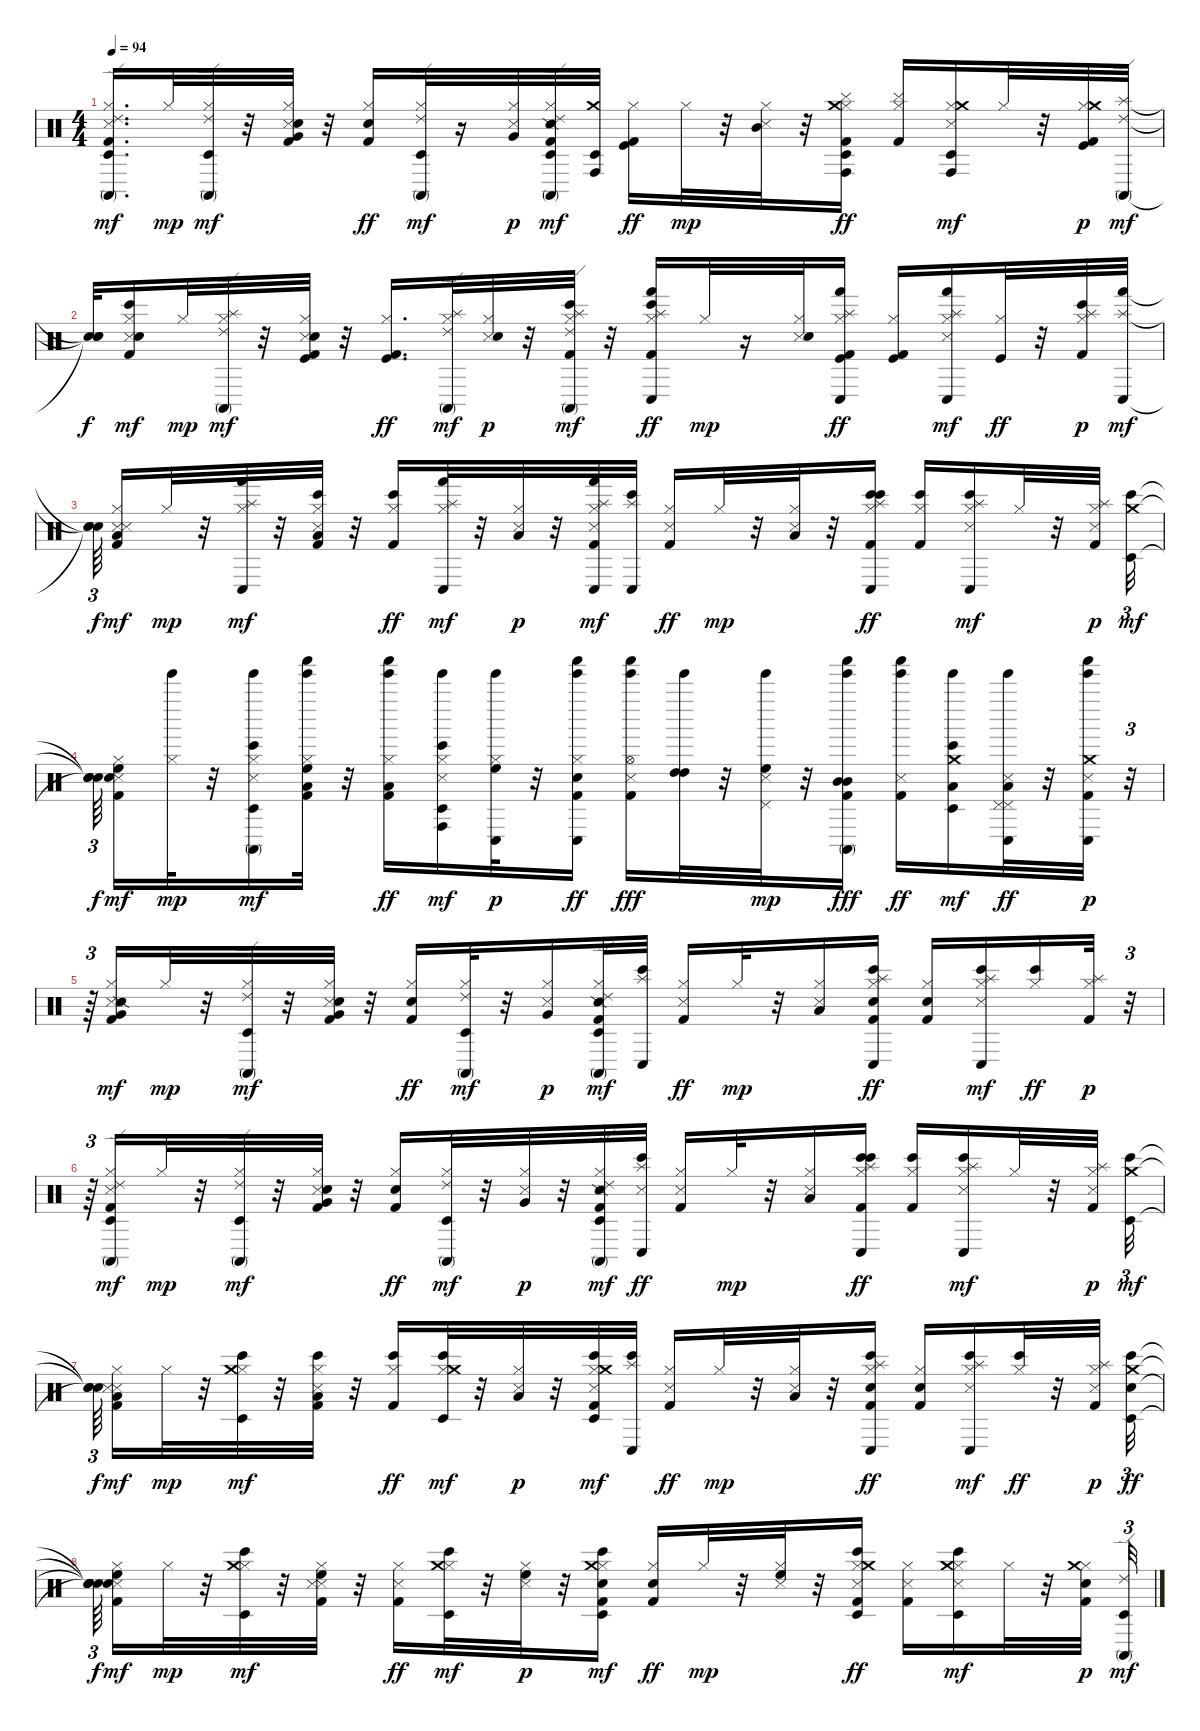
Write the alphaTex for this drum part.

\track "" {instrument percussion}
\staff {score}
\articulation defaults
\ts (4 4)
\tempo 94
\clef neutral
\ks c
("Conga high (mute)" "Timbale low (hit)" "Ride (edge) 2" "Kick (hit) 2" "Snare (side stick) 3" "Hi-Hat (closed)").16{d dy mf volume 6} "Hi-Hat (closed)".32{dy mp} ("Hi-Hat (closed)" "Conga high (mute)" "Timbale low (hit)" "Ride (edge) 2").32{dy mf} r.32 ("Kick (hit) 2" "Snare (side stick) 3" "Hi-Hat (closed)" "Snare (hit) 2" "Very Low Tom (hit)").32 r.32 ("Kick (hit) 2" "Hi-Hat (closed)" "Snare (hit) 2").16{dy ff} ("Hi-Hat (closed)" "Timbale low (hit)" "Conga high (mute)" "Ride (edge) 2").32{dy mf} r.16 ("Snare (side stick) 3" "Hi-Hat (closed)" "Very Low Tom (hit)").32{dy p} ("Kick (hit) 2" "Hi-Hat (closed)" "Snare (side stick) 2" "Conga high (mute)" "Ride (edge) 2" "Timbale low (hit)").32{dy mf} ("Conga high (hit)" "Timbale low (hit)" "Crash medium (hit)").32{volume 6} ("Kick (hit) 2" "Hi-Hat (closed)" "Kick (hit)").16{dy ff} "Hi-Hat (closed)".32{dy mp} r.32 ("Snare (side stick) 3" "Hi-Hat (closed)" "Mid Tom (hit)").32 r.32 ("Kick (hit) 2" "Hi-Hat (closed)" "Cymbal (hit)" "Timbale low (hit)" "Crash medium (hit)" "Conga high (hit)").16{dy ff} ("Kick (hit) 2" "Hi-Hat (closed)" "Cymbal (hit)").16 ("Snare (side stick) 3" "Hi-Hat (closed)" "Conga high (hit)" "Crash medium (hit)" "Timbale low (hit)").16{dy mf} "Hi-Hat (closed)".32 r.32 ("Kick (hit) 2" "Hi-Hat (closed)" "Kick (hit)" "Crash medium (hit)").32{dy p volume 7} ("Ride (edge) 2" "Conga high (mute)" "Splash (hit)").32{dy mf volume 6} |
("Snare (hit)"{t} "Snare (hit)"{t} "Snare (hit)"{t}).32{dy f} ("Kick (hit) 2" "Snare (side stick) 3" "Hi-Hat (closed)" "Bongo High (hit)" "Electric Snare (hit)").16{dy mf} "Hi-Hat (closed)".32{dy mp} ("Hi-Hat (closed)" "Ride (edge) 2" "Conga high (mute)" "Splash (hit)").32{dy mf} r.32 ("Kick (hit) 2" "Snare (side stick) 3" "Hi-Hat (closed)" "Kick (hit)" "Electric Snare (hit)").32 r.32 ("Kick (hit) 2" "Hi-Hat (closed)" "Kick (hit)").16{d dy ff} ("Hi-Hat (closed)" "Conga high (mute)" "Ride (edge) 2" "Splash (hit)").32{dy mf} ("Snare (side stick) 3" "Hi-Hat (closed)" "Electric Snare (hit)").32{dy p} r.32 ("Kick (hit) 2" "Hi-Hat (closed)" "Bongo High (hit)" "Ride (edge) 2" "Splash (hit)" "Conga high (mute)").32{dy mf volume 7} r.32 ("Hand (hit)" "Conga low (hit)" "Splash (hit)" "Kick (hit) 2" "Hi-Hat (closed)" "Bongo High (hit)").16{dy ff volume 6} "Hi-Hat (closed)".32{dy mp} r.16 ("Snare (side stick) 3" "Hi-Hat (closed)" "Electric Snare (hit)").32 ("Kick (hit) 2" "Hi-Hat (closed)" "Kick (hit)" "Conga low (hit)" "Splash (hit)" "Hand (hit)").16{dy ff} ("Kick (hit) 2" "Hi-Hat (closed)" "Kick (hit)").16 ("Snare (side stick) 3" "Hi-Hat (closed)" "Hand (hit)" "Splash (hit)" "Conga low (hit)").16{dy mf} ("Hi-Hat (closed)" "Kick (hit)").32{dy ff} r.32 ("Kick (hit) 2" "Hi-Hat (closed)" "Bongo High (hit)" "Splash (hit)").32{dy p volume 7} ("Hand (hit)" "Conga low (hit)" "Splash (hit)").32{dy mf volume 6} |
("Snare (hit)"{t} "Snare (hit)"{t} "Snare (hit)"{t}).64{tu (3 2) dy f beam splitsecondary} ("Kick (hit) 2" "Snare (side stick) 3" "Hi-Hat (closed)" "Metronome (hit)" "Low Tom (hit)").16{dy mf} "Hi-Hat (closed)".32{dy mp} r.32 ("Hi-Hat (closed)" "Hand (hit)" "Conga low (hit)" "Splash (hit)").32{dy mf} r.32 ("Kick (hit) 2" "Snare (side stick) 3" "Hi-Hat (closed)" "Bongo High (hit)" "Low Tom (hit)").32 r.32 ("Kick (hit) 2" "Hi-Hat (closed)" "Bongo High (hit)").16{dy ff} ("Hi-Hat (closed)" "Conga low (hit)" "Hand (hit)" "Splash (hit)").32{dy mf} r.32 ("Snare (side stick) 3" "Hi-Hat (closed)" "Low Tom (hit)").32{dy p} r.32 ("Kick (hit) 2" "Hi-Hat (closed)" "Metronome (hit)" "Hand (hit)" "Splash (hit)" "Conga low (hit)").32{dy mf volume 7} ("Bongo High (hit)" "Conga low (hit)" "Splash (hit)").32{volume 6} ("Kick (hit) 2" "Hi-Hat (closed)" "Metronome (hit)").16{dy ff} "Hi-Hat (closed)".32{dy mp} r.32 ("Snare (side stick) 3" "Hi-Hat (closed)" "Low Tom (hit)").32 r.32 ("Kick (hit) 2" "Hi-Hat (closed)" "Bongo High (hit)" "Conga low (hit)" "Splash (hit)" "Bongo High (hit)").16{dy ff} ("Kick (hit) 2" "Hi-Hat (closed)" "Bongo High (hit)").16 ("Snare (side stick) 3" "Hi-Hat (closed)" "Bongo High (hit)" "Splash (hit)" "Conga low (hit)").16{dy mf} "Hi-Hat (closed)".32 r.32 ("Kick (hit) 2" "Hi-Hat (closed)" "Metronome (hit)" "Splash (hit)").32{dy p} ("Bongo High (hit)" "Timbale low (hit)" "Crash medium (hit)").32{tu (3 2) dy mf volume 6} |
("Snare (hit)"{t} "Snare (hit)"{t} "Snare (hit)"{t}).64{tu (3 2) dy f beam splitsecondary} ("Kick (hit) 2" "Snare (side stick) 3" "Hi-Hat (closed)" "Snare (hit) 2" "High Floor Tom (hit)").16{dy mf} ("Tinkle Bell (hit)" "Hi-Hat (closed)").32{dy mp} r.32 ("Tinkle Bell (hit)" "Conga high (mute)" "Snare (side stick) 3" "Hi-Hat (closed)" "Bongo High (hit)" "Timbale low (hit)").16{dy mf} ("Kick (hit) 2" "Hi-Hat (closed)" "Tinkle Bell (hit)" "Shaker (hit)" "Low Tom (hit)" "High Floor Tom (hit)").32 r.32 ("Kick (hit) 2" "Hi-Hat (closed)" "Tinkle Bell (hit)" "Shaker (hit)" "Low Tom (hit)").16{dy ff} ("Tinkle Bell (hit)" "Conga high (hit)" "Snare (side stick) 3" "Hi-Hat (closed)" "Timbale low (hit)" "Bongo High (hit)").16{dy mf} ("Tinkle Bell (hit)" "Conga low (hit)" "Hi-Hat (closed)" "High Floor Tom (hit)").32{dy p} r.32 ("Kick (hit) 2" "Conga low (hit)" "Hi-Hat (closed)" "Tinkle Bell (hit)" "Shaker (hit)" "Snare (hit) 2").16{dy ff} ("Kick (hit) 2" "Snare (side stick) 3" "Tinkle Bell (hit)" "Shaker (hit)" "Hi-Hat (open)").16{dy fff} ("Tinkle Bell (hit)" "High Tom (hit)" "High Tom (hit)").32 r.32 ("Tinkle Bell (hit)" "Pedal Hi-Hat (hit)" "Snare (side stick) 3" "High Floor Tom (hit)").32{dy mp} r.32 ("Conga high (mute)" "Kick (hit) 2" "Tinkle Bell (hit)" "Shaker (hit)" "Mid Tom (hit)" "Mid Tom (hit)").16{dy fff} ("Kick (hit) 2" "Tinkle Bell (hit)" "Shaker (hit)" "Metronome (hit)").16{dy ff} ("Tinkle Bell (hit)" "Low Tom (hit)" "Bongo High (hit)" "Crash medium (hit)" "Timbale low (hit)").16{dy mf} ("Tinkle Bell (hit)" "Conga low (hit)" "Pedal Hi-Hat (hit)" "Snare (side stick) 3" "Pedal Hi-Hat (hit)" "Low Tom (hit)").32{dy ff} r.32 ("Kick (hit) 2" "Tinkle Bell (hit)" "Shaker (hit)" "Conga low (hit)" "Metronome (hit)" "Crash medium (hit)").32{dy p volume 7} r.32{tu (3 2)} |
r.64{tu (3 2)} ("Kick (hit) 2" "Snare (side stick) 3" "Hi-Hat (closed)" "Snare (side stick) 2" "Very Low Tom (hit)").16{dy mf volume 6} "Hi-Hat (closed)".32{dy mp} r.32 ("Hi-Hat (closed)" "Conga high (mute)" "Timbale low (hit)" "Ride (edge) 2").32{dy mf} r.32 ("Kick (hit) 2" "Snare (side stick) 3" "Hi-Hat (closed)" "Snare (hit) 2" "Very Low Tom (hit)").32 r.32 ("Kick (hit) 2" "Hi-Hat (closed)" "Snare (hit) 2").16{dy ff} ("Hi-Hat (closed)" "Timbale low (hit)" "Conga high (mute)" "Ride (edge) 2").32{dy mf} r.32 ("Snare (side stick) 3" "Hi-Hat (closed)" "Very Low Tom (hit)").16{dy p} ("Kick (hit) 2" "Hi-Hat (closed)" "Snare (side stick) 2" "Conga high (mute)" "Ride (edge) 2" "Timbale low (hit)").32{dy mf volume 7} ("Bongo High (hit)" "Conga low (hit)" "Splash (hit)").32{volume 6} ("Kick (hit) 2" "Hi-Hat (closed)" "Metronome (hit)").16{dy ff} "Hi-Hat (closed)".32{dy mp} r.32 ("Snare (side stick) 3" "Hi-Hat (closed)" "Low Tom (hit)").16 ("Kick (hit) 2" "Hi-Hat (closed)" "Electric Snare (hit)" "Conga low (hit)" "Splash (hit)" "Bongo High (hit)").16{dy ff} ("Kick (hit) 2" "Hi-Hat (closed)" "Electric Snare (hit)").16 ("Snare (side stick) 3" "Hi-Hat (closed)" "Bongo High (hit)" "Splash (hit)" "Conga low (hit)").16{dy mf} ("Hi-Hat (closed)" "Bongo High (hit)").16{dy ff} ("Kick (hit) 2" "Hi-Hat (closed)" "Splash (hit)").32{dy p} r.32{tu (3 2)} |
r.64{tu (3 2)} ("Conga high (mute)" "Timbale low (hit)" "Ride (edge) 2" "Kick (hit) 2" "Snare (side stick) 3" "Hi-Hat (closed)").16{dy mf volume 6} "Hi-Hat (closed)".32{dy mp} r.32 ("Hi-Hat (closed)" "Conga high (mute)" "Timbale low (hit)" "Ride (edge) 2").32{dy mf} r.32 ("Kick (hit) 2" "Snare (side stick) 3" "Hi-Hat (closed)" "Snare (hit) 2" "Very Low Tom (hit)").32 r.32 ("Kick (hit) 2" "Hi-Hat (closed)" "Snare (hit) 2").16{dy ff} ("Hi-Hat (closed)" "Timbale low (hit)" "Conga high (mute)" "Ride (edge) 2").32{dy mf} r.32 ("Snare (side stick) 3" "Hi-Hat (closed)" "Very Low Tom (hit)").32{dy p} r.32 ("Kick (hit) 2" "Hi-Hat (closed)" "Snare (side stick) 2" "Conga high (mute)" "Ride (edge) 2" "Timbale low (hit)").32{dy mf volume 7} ("Bongo High (hit)" "Conga low (hit)" "Splash (hit)" "Metronome (hit)").32{dy ff volume 6} ("Kick (hit) 2" "Hi-Hat (closed)" "Metronome (hit)").16 "Hi-Hat (closed)".32{dy mp} r.32 ("Snare (side stick) 3" "Hi-Hat (closed)" "Low Tom (hit)").16 ("Kick (hit) 2" "Hi-Hat (closed)" "Bongo High (hit)" "Conga low (hit)" "Splash (hit)" "Bongo High (hit)").16{dy ff} ("Kick (hit) 2" "Hi-Hat (closed)" "Bongo High (hit)").16 ("Snare (side stick) 3" "Hi-Hat (closed)" "Bongo High (hit)" "Splash (hit)" "Conga low (hit)").16{dy mf} "Hi-Hat (closed)".32 r.32 ("Kick (hit) 2" "Hi-Hat (closed)" "Metronome (hit)" "Splash (hit)").32{dy p volume 7} ("Bongo High (hit)" "Timbale low (hit)" "Crash medium (hit)").32{tu (3 2) dy mf volume 6} |
("Snare (hit)"{t} "Snare (hit)"{t} "Snare (hit)"{t}).64{tu (3 2) dy f beam splitsecondary} ("Kick (hit) 2" "Snare (side stick) 3" "Hi-Hat (closed)" "Metronome (hit)" "Low Tom (hit)").16{dy mf} "Hi-Hat (closed)".32{dy mp} r.32 ("Hi-Hat (closed)" "Bongo High (hit)" "Timbale low (hit)" "Crash medium (hit)").32{dy mf} r.32 ("Kick (hit) 2" "Snare (side stick) 3" "Hi-Hat (closed)" "Bongo High (hit)" "Low Tom (hit)").32 r.32 ("Kick (hit) 2" "Hi-Hat (closed)" "Bongo High (hit)").16{dy ff} ("Hi-Hat (closed)" "Timbale low (hit)" "Bongo High (hit)" "Crash medium (hit)").32{dy mf} r.32 ("Snare (side stick) 3" "Hi-Hat (closed)" "Low Tom (hit)").32{dy p} r.32 ("Kick (hit) 2" "Hi-Hat (closed)" "Metronome (hit)" "Bongo High (hit)" "Crash medium (hit)" "Timbale low (hit)").32{dy mf} ("Bongo High (hit)" "Conga low (hit)" "Splash (hit)").32{volume 6} ("Kick (hit) 2" "Hi-Hat (closed)" "Metronome (hit)").16{dy ff} "Hi-Hat (closed)".32{dy mp} r.32 ("Snare (side stick) 3" "Hi-Hat (closed)" "Low Tom (hit)").32 r.32 ("Kick (hit) 2" "Hi-Hat (closed)" "Electric Snare (hit)" "Conga low (hit)" "Splash (hit)" "Bongo High (hit)").16{dy ff} ("Kick (hit) 2" "Hi-Hat (closed)" "Electric Snare (hit)").16 ("Snare (side stick) 3" "Hi-Hat (closed)" "Bongo High (hit)" "Splash (hit)" "Conga low (hit)").16{dy mf} ("Hi-Hat (closed)" "Bongo High (hit)").32{dy ff} r.32 ("Kick (hit) 2" "Hi-Hat (closed)" "Metronome (hit)" "Splash (hit)").32{dy p volume 7} ("Bongo High (hit)" "Timbale low (hit)" "Crash medium (hit)" "Snare (hit) 2").32{tu (3 2) dy ff volume 6} |
("Snare (hit)"{t} "Snare (hit)"{t} "Snare (hit)"{t} "Snare (hit)"{t}).64{tu (3 2) dy f beam splitsecondary} ("Kick (hit) 2" "Snare (side stick) 3" "Hi-Hat (closed)" "Snare (hit) 2" "High Floor Tom (hit)").16{dy mf} "Hi-Hat (closed)".32{dy mp} r.32 ("Hi-Hat (closed)" "Bongo High (hit)" "Timbale low (hit)" "Crash medium (hit)").32{dy mf} r.32 ("Kick (hit) 2" "Snare (side stick) 3" "Hi-Hat (closed)" "Metronome (hit)" "High Floor Tom (hit)").32 r.32 ("Kick (hit) 2" "Hi-Hat (closed)" "Metronome (hit)").16{dy ff} ("Hi-Hat (closed)" "Timbale low (hit)" "Bongo High (hit)" "Crash medium (hit)").32{dy mf} r.32 ("Snare (side stick) 3" "Hi-Hat (closed)" "High Floor Tom (hit)").32{dy p} r.32 ("Kick (hit) 2" "Hi-Hat (closed)" "Snare (hit) 2" "Bongo High (hit)" "Crash medium (hit)" "Timbale low (hit)").16{dy mf} ("Kick (hit) 2" "Hi-Hat (closed)" "Snare (hit) 2").16{dy ff} "Hi-Hat (closed)".32{dy mp} r.32 ("Snare (side stick) 3" "Hi-Hat (closed)" "High Floor Tom (hit)").32 r.32 ("Kick (hit) 2" "Hi-Hat (closed)" "Metronome (hit)" "Timbale low (hit)" "Crash medium (hit)" "Bongo High (hit)").16{dy ff} ("Kick (hit) 2" "Hi-Hat (closed)" "Metronome (hit)").16 ("Snare (side stick) 3" "Hi-Hat (closed)" "Bongo High (hit)" "Crash medium (hit)" "Timbale low (hit)").16{dy mf} "Hi-Hat (closed)".32 r.32 ("Kick (hit) 2" "Hi-Hat (closed)" "Snare (hit) 2" "Crash medium (hit)").32{dy p volume 7} ("Conga high (mute)" "Timbale low (hit)" "Ride (edge) 2").32{tu (3 2) dy mf volume 6}
